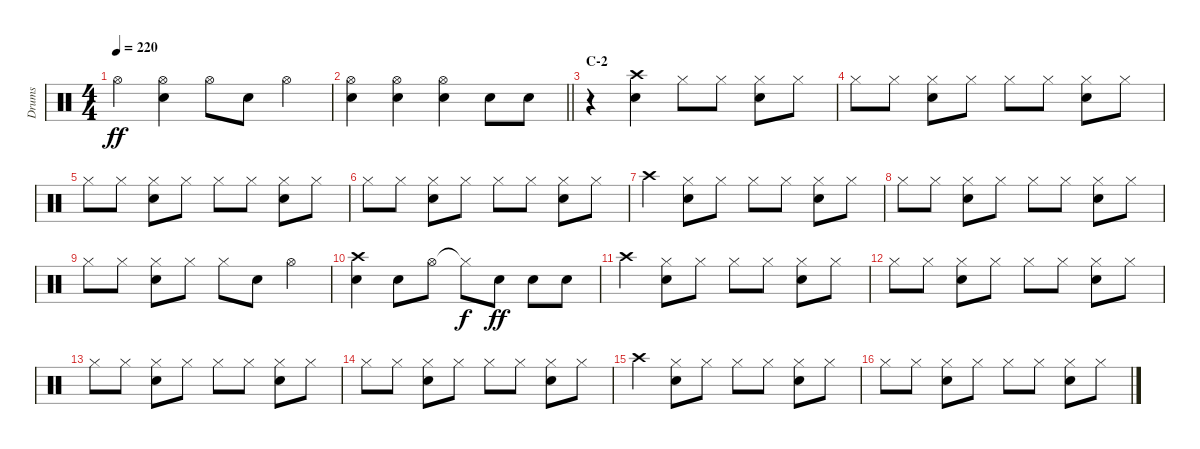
\track ("Drums" "Drums") {instrument percussion}
\staff {score}
\articulation defaults
\ts (4 4)
\tempo 220
\clef neutral
\ks c "Hi-Hat (open)".4{dy ff}
("Hi-Hat (open)" "Snare (hit) 2").4 "Hi-Hat (open)".8 "Snare (hit) 2".8 "Hi-Hat (open)".4 |
\barLineRight lightlight
("Hi-Hat (open)" "Snare (hit) 2").4 ("Hi-Hat (open)" "Snare (hit) 2").4 ("Snare (hit) 2" "Hi-Hat (open)").4 "Snare (hit) 2".8 "Snare (hit) 2".8 |
\section ("" "C-2")
r.4 ("Crash high (hit)" "Snare (hit) 2").4 "Hi-Hat (closed)".8 "Hi-Hat (closed)".8 ("Hi-Hat (closed)" "Snare (hit) 2").8 "Hi-Hat (closed)".8 |
"Hi-Hat (closed)".8 "Hi-Hat (closed)".8 ("Hi-Hat (closed)" "Snare (hit) 2").8 "Hi-Hat (closed)".8 "Hi-Hat (closed)".8 "Hi-Hat (closed)".8 ("Hi-Hat (closed)" "Snare (hit) 2").8 "Hi-Hat (closed)".8 |
"Hi-Hat (closed)".8 "Hi-Hat (closed)".8 ("Hi-Hat (closed)" "Snare (hit) 2").8 "Hi-Hat (closed)".8 "Hi-Hat (closed)".8 "Hi-Hat (closed)".8 ("Hi-Hat (closed)" "Snare (hit) 2").8 "Hi-Hat (closed)".8 |
"Hi-Hat (closed)".8 "Hi-Hat (closed)".8 ("Hi-Hat (closed)" "Snare (hit) 2").8 "Hi-Hat (closed)".8 "Hi-Hat (closed)".8 "Hi-Hat (closed)".8 ("Hi-Hat (closed)" "Snare (hit) 2").8 "Hi-Hat (closed)".8 |
"Crash high (hit)".4 ("Hi-Hat (closed)" "Snare (hit) 2").8 "Hi-Hat (closed)".8 "Hi-Hat (closed)".8 "Hi-Hat (closed)".8 ("Hi-Hat (closed)" "Snare (hit) 2").8 "Hi-Hat (closed)".8 |
"Hi-Hat (closed)".8 "Hi-Hat (closed)".8 ("Hi-Hat (closed)" "Snare (hit) 2").8 "Hi-Hat (closed)".8 "Hi-Hat (closed)".8 "Hi-Hat (closed)".8 ("Hi-Hat (closed)" "Snare (hit) 2").8 "Hi-Hat (closed)".8 |
"Hi-Hat (closed)".8 "Hi-Hat (closed)".8 ("Hi-Hat (closed)" "Snare (hit) 2").8 "Hi-Hat (closed)".8 "Hi-Hat (closed)".8 "Snare (hit) 2".8 "Hi-Hat (open)".4 |
("Crash high (hit)" "Snare (hit) 2").4 "Snare (hit) 2".8 "Hi-Hat (open)".8 "Hi-Hat (closed)"{t}.8{dy f} "Snare (hit) 2".8{dy ff} "Snare (hit) 2".8 "Snare (hit) 2".8 |
"Crash high (hit)".4 ("Hi-Hat (closed)" "Snare (hit) 2").8 "Hi-Hat (closed)".8 "Hi-Hat (closed)".8 "Hi-Hat (closed)".8 ("Hi-Hat (closed)" "Snare (hit) 2").8 "Hi-Hat (closed)".8 |
"Hi-Hat (closed)".8 "Hi-Hat (closed)".8 ("Hi-Hat (closed)" "Snare (hit) 2").8 "Hi-Hat (closed)".8 "Hi-Hat (closed)".8 "Hi-Hat (closed)".8 ("Hi-Hat (closed)" "Snare (hit) 2").8 "Hi-Hat (closed)".8 |
"Hi-Hat (closed)".8 "Hi-Hat (closed)".8 ("Hi-Hat (closed)" "Snare (hit) 2").8 "Hi-Hat (closed)".8 "Hi-Hat (closed)".8 "Hi-Hat (closed)".8 ("Hi-Hat (closed)" "Snare (hit) 2").8 "Hi-Hat (closed)".8 |
"Hi-Hat (closed)".8 "Hi-Hat (closed)".8 ("Hi-Hat (closed)" "Snare (hit) 2").8 "Hi-Hat (closed)".8 "Hi-Hat (closed)".8 "Hi-Hat (closed)".8 ("Hi-Hat (closed)" "Snare (hit) 2").8 "Hi-Hat (closed)".8 |
"Crash high (hit)".4 ("Hi-Hat (closed)" "Snare (hit) 2").8 "Hi-Hat (closed)".8 "Hi-Hat (closed)".8 "Hi-Hat (closed)".8 ("Hi-Hat (closed)" "Snare (hit) 2").8 "Hi-Hat (closed)".8 |
"Hi-Hat (closed)".8 "Hi-Hat (closed)".8 ("Hi-Hat (closed)" "Snare (hit) 2").8 "Hi-Hat (closed)".8 "Hi-Hat (closed)".8 "Hi-Hat (closed)".8 ("Hi-Hat (closed)" "Snare (hit) 2").8 "Hi-Hat (closed)".8
